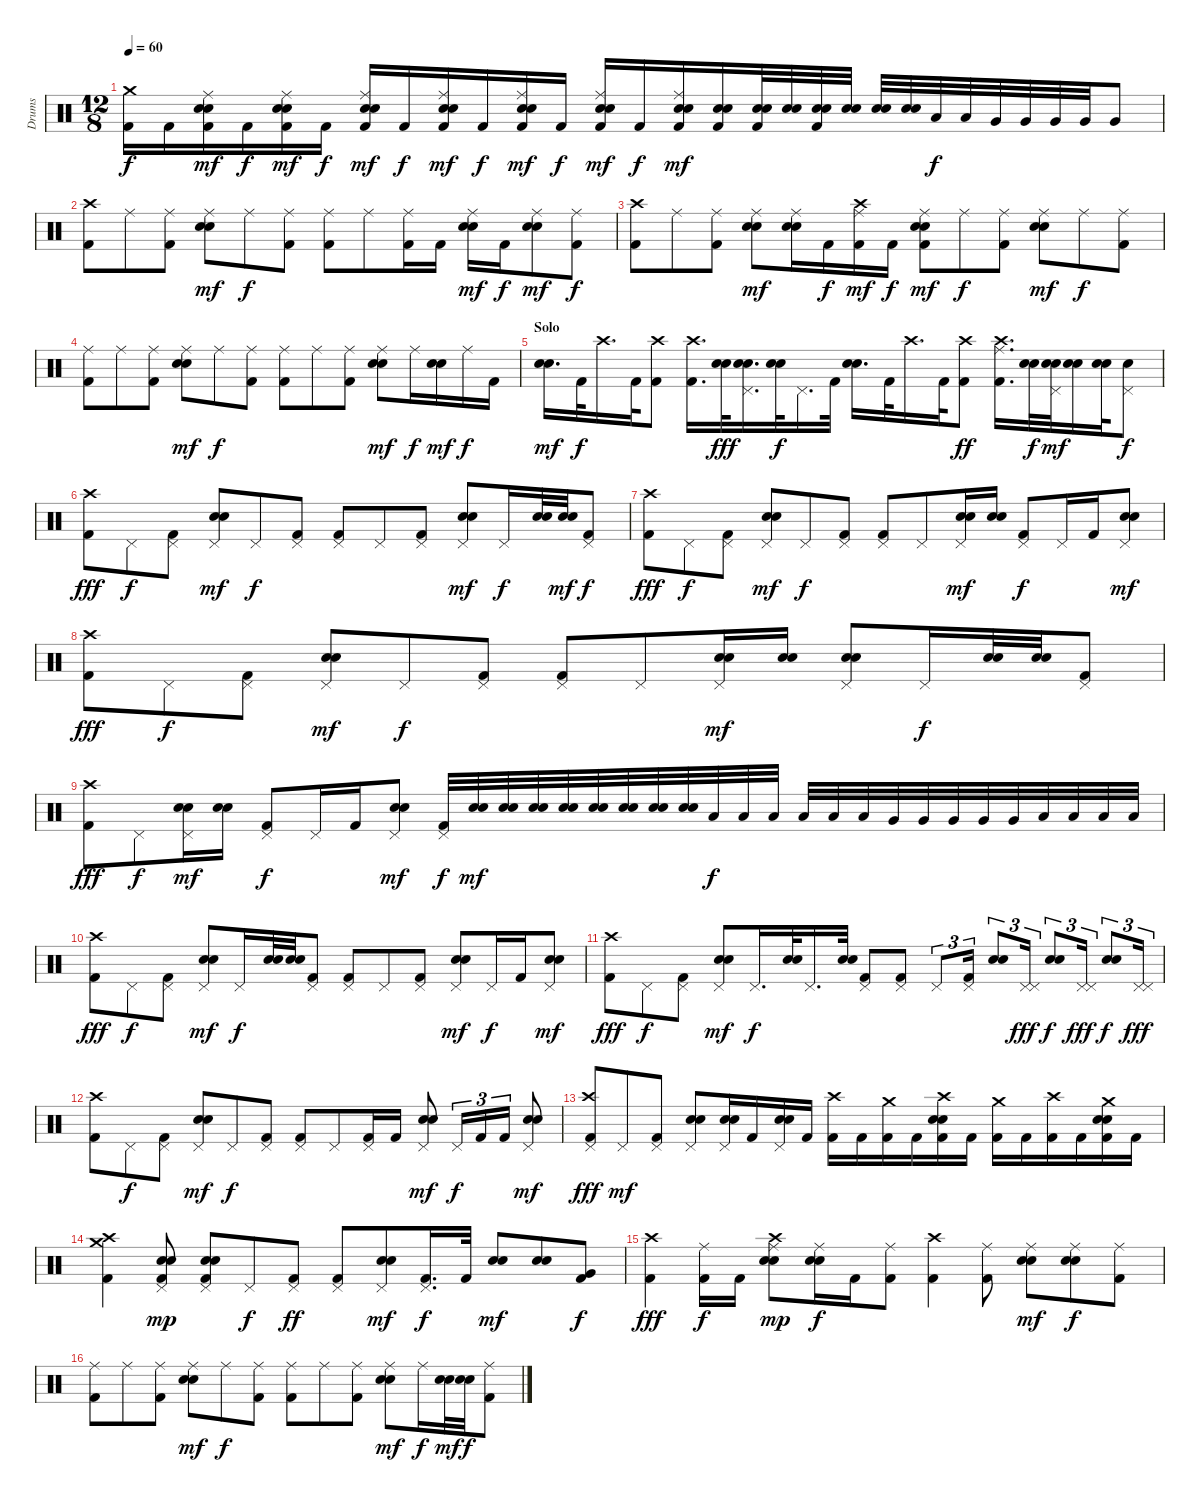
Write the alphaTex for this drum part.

\track ("Drums" "Drums") {instrument percussion}
\staff {score}
\articulation defaults
\ts (12 8)
\tempo 60
\clef neutral
\ks c
("Crash medium (hit)" "Kick (hit) 2").16{dy f} "Kick (hit) 2".16 ("Ride (middle)" "Snare (hit) 2" "Kick (hit) 2" "Electric Snare (hit)").16{dy mf} "Kick (hit) 2".16{dy f} ("Ride (middle)" "Snare (hit) 2" "Kick (hit) 2" "Electric Snare (hit)").16{dy mf} "Kick (hit) 2".16{dy f} ("Ride (middle)" "Snare (hit) 2" "Kick (hit) 2" "Electric Snare (hit)").16{dy mf} "Kick (hit) 2".16{dy f} ("Ride (middle)" "Snare (hit) 2" "Kick (hit) 2" "Electric Snare (hit)").16{dy mf} "Kick (hit) 2".16{dy f} ("Ride (middle)" "Snare (hit) 2" "Kick (hit) 2" "Electric Snare (hit)").16{dy mf} "Kick (hit) 2".16{dy f} ("Ride (middle)" "Snare (hit) 2" "Kick (hit) 2" "Electric Snare (hit)").16{dy mf} "Kick (hit) 2".16{dy f} ("Ride (middle)" "Snare (hit) 2" "Kick (hit) 2" "Electric Snare (hit)").16{dy mf} ("Snare (hit) 2" "Kick (hit) 2" "Electric Snare (hit)").16 ("Snare (hit) 2" "Kick (hit) 2" "Electric Snare (hit)").32 ("Snare (hit) 2" "Electric Snare (hit)").32 ("Snare (hit) 2" "Kick (hit) 2" "Electric Snare (hit)").32 ("Snare (hit) 2" "Electric Snare (hit)").32 ("Snare (hit) 2" "Electric Snare (hit)").32 ("Snare (hit) 2" "Electric Snare (hit)").32 "Low Tom (hit)".32{dy f} "Low Tom (hit)".32 "Very Low Tom (hit)".32 "Very Low Tom (hit)".32 "Very Low Tom (hit)".32 "Very Low Tom (hit)".32 "Very Low Tom (hit)".8 |
("Crash high (hit)" "Kick (hit) 2").8 "Ride (middle)".8 ("Ride (middle)" "Kick (hit) 2").8 ("Ride (middle)" "Snare (hit) 2" "Electric Snare (hit)").8{dy mf} "Ride (middle)".8{dy f} ("Ride (middle)" "Kick (hit) 2").8 ("Ride (middle)" "Kick (hit) 2").8 "Ride (middle)".8 ("Ride (middle)" "Kick (hit) 2").16 "Kick (hit) 2".16 ("Ride (middle)" "Electric Snare (hit)" "Snare (hit) 2").16{dy mf} "Kick (hit) 2".16{dy f} ("Ride (middle)" "Snare (hit) 2" "Electric Snare (hit)").8{dy mf} ("Ride (middle)" "Kick (hit) 2").8{dy f} |
("Crash high (hit)" "Kick (hit) 2").8 "Ride (middle)".8 ("Ride (middle)" "Kick (hit) 2").8 ("Ride (middle)" "Electric Snare (hit)" "Snare (hit) 2").8{dy mf} ("Ride (middle)" "Electric Snare (hit)" "Snare (hit) 2").16 "Kick (hit) 2".16{dy f} ("Ride (middle)" "Crash high (hit)" "Kick (hit) 2").16{dy mf} "Kick (hit) 2".16{dy f} ("Ride (middle)" "Snare (hit) 2" "Kick (hit) 2" "Electric Snare (hit)").8{dy mf} "Ride (middle)".8{dy f} ("Ride (middle)" "Kick (hit) 2").8 ("Ride (middle)" "Electric Snare (hit)" "Snare (hit) 2").8{dy mf} "Ride (middle)".8{dy f} ("Ride (middle)" "Kick (hit) 2").8 |
("Ride (middle)" "Kick (hit) 2").8 "Ride (middle)".8 ("Ride (middle)" "Kick (hit) 2").8 ("Ride (middle)" "Electric Snare (hit)" "Snare (hit) 2").8{dy mf} "Ride (middle)".8{dy f} ("Ride (middle)" "Kick (hit) 2").8 ("Ride (middle)" "Kick (hit) 2").8 "Ride (middle)".8 ("Ride (middle)" "Kick (hit) 2").8 ("Ride (middle)" "Electric Snare (hit)" "Snare (hit) 2").8{dy mf} "Ride (middle)".16{dy f} ("Electric Snare (hit)" "Snare (hit) 2").16{dy mf} "Ride (middle)".16{dy f} "Kick (hit) 2".16 |
\section ("" "Solo")
("Electric Snare (hit)" "Snare (hit) 2").16{d dy mf} "Kick (hit) 2".32{dy f} "Crash high (hit)".16{d} "Kick (hit) 2".32 ("Crash high (hit)" "Kick (hit) 2").8 ("Crash high (hit)" "Kick (hit) 2").16{d} ("Electric Snare (hit)" "Snare (hit) 2").32{dy fff} ("Pedal Hi-Hat (hit)" "Electric Snare (hit)" "Snare (hit) 2").16{d} ("Electric Snare (hit)" "Snare (hit) 2").32{dy f} "Pedal Hi-Hat (hit)".16{d} "Kick (hit) 2".32 ("Electric Snare (hit)" "Snare (hit) 2").16{d} "Kick (hit) 2".32 "Crash high (hit)".16{d} "Kick (hit) 2".32 ("Kick (hit) 2" "Crash high (hit)").8{dy ff} ("Ride (middle)" "Kick (hit) 2" "Crash high (hit)").16{d} ("Electric Snare (hit)" "Snare (hit) 2").32{dy f} ("Pedal Hi-Hat (hit)" "Electric Snare (hit)" "Snare (hit) 2").32{dy mf} ("Electric Snare (hit)" "Snare (hit) 2").16 ("Electric Snare (hit)" "Snare (hit) 2").32 ("Pedal Hi-Hat (hit)" "Electric Snare (hit)").8{dy f} |
("Crash high (hit)" "Kick (hit) 2").8{dy fff} "Pedal Hi-Hat (hit)".8{dy f} ("Pedal Hi-Hat (hit)" "Kick (hit) 2").8 ("Pedal Hi-Hat (hit)" "Electric Snare (hit)" "Snare (hit) 2").8{dy mf} "Pedal Hi-Hat (hit)".8{dy f} ("Pedal Hi-Hat (hit)" "Kick (hit) 2").8 ("Pedal Hi-Hat (hit)" "Kick (hit) 2").8 "Pedal Hi-Hat (hit)".8 ("Pedal Hi-Hat (hit)" "Kick (hit) 2").8 ("Pedal Hi-Hat (hit)" "Electric Snare (hit)" "Snare (hit) 2").8{dy mf} "Pedal Hi-Hat (hit)".16{dy f} ("Electric Snare (hit)" "Snare (hit) 2").32 ("Electric Snare (hit)" "Snare (hit) 2").32{dy mf} ("Pedal Hi-Hat (hit)" "Kick (hit) 2").8{dy f} |
("Crash high (hit)" "Kick (hit) 2").8{dy fff} "Pedal Hi-Hat (hit)".8{dy f} ("Pedal Hi-Hat (hit)" "Kick (hit) 2").8 ("Pedal Hi-Hat (hit)" "Electric Snare (hit)" "Snare (hit) 2").8{dy mf} "Pedal Hi-Hat (hit)".8{dy f} ("Pedal Hi-Hat (hit)" "Kick (hit) 2").8 ("Pedal Hi-Hat (hit)" "Kick (hit) 2").8 "Pedal Hi-Hat (hit)".8 ("Pedal Hi-Hat (hit)" "Electric Snare (hit)" "Snare (hit) 2").16{dy mf} ("Electric Snare (hit)" "Snare (hit) 2").16 ("Pedal Hi-Hat (hit)" "Kick (hit) 2").8{dy f} "Pedal Hi-Hat (hit)".16 "Kick (hit) 2".16 ("Pedal Hi-Hat (hit)" "Electric Snare (hit)" "Snare (hit) 2").8{dy mf} |
("Crash high (hit)" "Kick (hit) 2").8{dy fff} "Pedal Hi-Hat (hit)".8{dy f} ("Pedal Hi-Hat (hit)" "Kick (hit) 2").8 ("Pedal Hi-Hat (hit)" "Electric Snare (hit)" "Snare (hit) 2").8{dy mf} "Pedal Hi-Hat (hit)".8{dy f} ("Pedal Hi-Hat (hit)" "Kick (hit) 2").8 ("Pedal Hi-Hat (hit)" "Kick (hit) 2").8 "Pedal Hi-Hat (hit)".8 ("Pedal Hi-Hat (hit)" "Electric Snare (hit)" "Snare (hit) 2").16{dy mf} ("Electric Snare (hit)" "Snare (hit) 2").16 ("Pedal Hi-Hat (hit)" "Electric Snare (hit)" "Snare (hit) 2").8 "Pedal Hi-Hat (hit)".16{dy f} ("Electric Snare (hit)" "Snare (hit) 2").32 ("Electric Snare (hit)" "Snare (hit) 2").32 ("Pedal Hi-Hat (hit)" "Kick (hit) 2").8 |
("Crash high (hit)" "Kick (hit) 2").8{dy fff} "Pedal Hi-Hat (hit)".8{dy f} ("Pedal Hi-Hat (hit)" "Electric Snare (hit)" "Snare (hit) 2").16{dy mf} ("Electric Snare (hit)" "Snare (hit) 2").16 ("Pedal Hi-Hat (hit)" "Kick (hit) 2").8{dy f} "Pedal Hi-Hat (hit)".16 "Kick (hit) 2".16 ("Pedal Hi-Hat (hit)" "Electric Snare (hit)" "Snare (hit) 2").8{dy mf} ("Pedal Hi-Hat (hit)" "Kick (hit) 2").32{dy f} ("Electric Snare (hit)" "Snare (hit) 2").32{dy mf} ("Electric Snare (hit)" "Snare (hit) 2").32 ("Electric Snare (hit)" "Snare (hit) 2").32 ("Electric Snare (hit)" "Snare (hit) 2").32 ("Electric Snare (hit)" "Snare (hit) 2").32 ("Electric Snare (hit)" "Snare (hit) 2").32 ("Electric Snare (hit)" "Snare (hit) 2").32 ("Electric Snare (hit)" "Snare (hit) 2").32 "Low Tom (hit)".32{dy f} "Low Tom (hit)".32 "Low Tom (hit)".32 "Low Tom (hit)".32 "Low Tom (hit)".32 "Low Tom (hit)".32 "Very Low Tom (hit)".32 "Very Low Tom (hit)".32 "Very Low Tom (hit)".32 "Very Low Tom (hit)".32 "Very Low Tom (hit)".32 "Low Floor Tom (hit)".32 "Low Floor Tom (hit)".32 "Low Floor Tom (hit)".32 "Low Floor Tom (hit)".32 |
("Crash high (hit)" "Kick (hit) 2").8{dy fff} "Pedal Hi-Hat (hit)".8{dy f} ("Pedal Hi-Hat (hit)" "Kick (hit) 2").8 ("Pedal Hi-Hat (hit)" "Electric Snare (hit)" "Snare (hit) 2").8{dy mf} "Pedal Hi-Hat (hit)".16{dy f} ("Electric Snare (hit)" "Snare (hit) 2").32 ("Electric Snare (hit)" "Snare (hit) 2").32 ("Pedal Hi-Hat (hit)" "Kick (hit) 2").8 ("Pedal Hi-Hat (hit)" "Kick (hit) 2").8 "Pedal Hi-Hat (hit)".8 ("Pedal Hi-Hat (hit)" "Kick (hit) 2").8 ("Pedal Hi-Hat (hit)" "Electric Snare (hit)" "Snare (hit) 2").8{dy mf} "Pedal Hi-Hat (hit)".16{dy f} "Kick (hit) 2".16 ("Pedal Hi-Hat (hit)" "Electric Snare (hit)" "Snare (hit) 2").8{dy mf} |
("Crash high (hit)" "Kick (hit) 2").8{dy fff} "Pedal Hi-Hat (hit)".8{dy f} ("Pedal Hi-Hat (hit)" "Kick (hit) 2").8 ("Pedal Hi-Hat (hit)" "Electric Snare (hit)" "Snare (hit) 2").8{dy mf} "Pedal Hi-Hat (hit)".16{d dy f} ("Electric Snare (hit)" "Snare (hit) 2").32 "Pedal Hi-Hat (hit)".16{d} ("Electric Snare (hit)" "Snare (hit) 2").32 ("Pedal Hi-Hat (hit)" "Kick (hit) 2").8 ("Pedal Hi-Hat (hit)" "Kick (hit) 2").8 "Pedal Hi-Hat (hit)".8{tu (3 2)} ("Pedal Hi-Hat (hit)" "Kick (hit) 2").16{tu (3 2)} ("Electric Snare (hit)" "Snare (hit) 2").8{tu (3 2)} ("Pedal Hi-Hat (hit)" "Pedal Hi-Hat (hit)").16{tu (3 2) dy fff} ("Electric Snare (hit)" "Snare (hit) 2").8{tu (3 2) dy f} ("Pedal Hi-Hat (hit)" "Pedal Hi-Hat (hit)").16{tu (3 2) dy fff} ("Electric Snare (hit)" "Snare (hit) 2").8{tu (3 2) dy f} ("Pedal Hi-Hat (hit)" "Pedal Hi-Hat (hit)").16{tu (3 2) dy fff} |
("Crash high (hit)" "Kick (hit) 2").8 "Pedal Hi-Hat (hit)".8{dy f} ("Pedal Hi-Hat (hit)" "Kick (hit) 2").8 ("Pedal Hi-Hat (hit)" "Electric Snare (hit)" "Snare (hit) 2").8{dy mf} "Pedal Hi-Hat (hit)".8{dy f} ("Pedal Hi-Hat (hit)" "Kick (hit) 2").8 ("Pedal Hi-Hat (hit)" "Kick (hit) 2").8 "Pedal Hi-Hat (hit)".8 ("Pedal Hi-Hat (hit)" "Kick (hit) 2").16 "Kick (hit) 2".16 ("Pedal Hi-Hat (hit)" "Electric Snare (hit)" "Snare (hit) 2").8{dy mf} "Pedal Hi-Hat (hit)".16{tu (3 2) dy f} "Kick (hit) 2".16{tu (3 2)} "Kick (hit) 2".16{tu (3 2)} ("Pedal Hi-Hat (hit)" "Electric Snare (hit)" "Snare (hit) 2").8{dy mf} |
("Kick (hit) 2" "Pedal Hi-Hat (hit)" "Crash high (hit)").8{dy fff} "Pedal Hi-Hat (hit)".8{dy mf} ("Kick (hit) 2" "Pedal Hi-Hat (hit)").8 ("Electric Snare (hit)" "Pedal Hi-Hat (hit)" "Snare (hit) 2").8 ("Electric Snare (hit)" "Pedal Hi-Hat (hit)" "Snare (hit) 2").16 "Kick (hit) 2".16 ("Electric Snare (hit)" "Pedal Hi-Hat (hit)" "Snare (hit) 2").16 "Kick (hit) 2".16 ("Kick (hit) 2" "Crash high (hit)").16 "Kick (hit) 2".16 ("Kick (hit) 2" "Crash medium (hit)").16 "Kick (hit) 2".16 ("Electric Snare (hit)" "Kick (hit) 2" "Crash high (hit)" "Snare (hit) 2").16 "Kick (hit) 2".16 ("Crash medium (hit)" "Kick (hit) 2").16 "Kick (hit) 2".16 ("Kick (hit) 2" "Crash high (hit)").16 "Kick (hit) 2".16 ("Electric Snare (hit)" "Kick (hit) 2" "Crash medium (hit)" "Snare (hit) 2").16 "Kick (hit) 2".16 |
("Crash high (hit)" "Crash medium (hit)" "Kick (hit) 2").4 ("Pedal Hi-Hat (hit)" "Electric Snare (hit)" "Kick (hit) 2" "Snare (hit) 2").8{dy mp} ("Pedal Hi-Hat (hit)" "Electric Snare (hit)" "Snare (hit) 2" "Kick (hit) 2").8 "Pedal Hi-Hat (hit)".8{dy f} ("Pedal Hi-Hat (hit)" "Kick (hit) 2").8{dy ff} ("Pedal Hi-Hat (hit)" "Kick (hit) 2").8 ("Pedal Hi-Hat (hit)" "Electric Snare (hit)" "Snare (hit) 2").8{dy mf} ("Pedal Hi-Hat (hit)" "Kick (hit) 2").16{d dy f} "Kick (hit) 2".32 ("Electric Snare (hit)" "Snare (hit) 2").8{dy mf} ("Electric Snare (hit)" "Snare (hit) 2").8 ("Kick (hit) 2" "Very Low Tom (hit)").8{dy f} |
("Crash high (hit)" "Kick (hit) 2").4{dy fff} ("Ride (middle)" "Kick (hit) 2").16{dy f} "Kick (hit) 2".16 ("Ride (middle)" "Electric Snare (hit)" "Snare (hit) 2" "Crash high (hit)").8{dy mp} ("Ride (middle)" "Electric Snare (hit)" "Snare (hit) 2").16{dy f} "Kick (hit) 2".16 ("Ride (middle)" "Kick (hit) 2").8 ("Crash high (hit)" "Kick (hit) 2").4 ("Ride (middle)" "Kick (hit) 2").8 ("Ride (middle)" "Electric Snare (hit)" "Snare (hit) 2").8{dy mf} ("Ride (middle)" "Electric Snare (hit)" "Snare (hit) 2").8{dy f} ("Ride (middle)" "Kick (hit) 2").8 |
("Ride (middle)" "Kick (hit) 2").8 "Ride (middle)".8 ("Ride (middle)" "Kick (hit) 2").8 ("Ride (middle)" "Electric Snare (hit)" "Snare (hit) 2").8{dy mf} "Ride (middle)".8{dy f} ("Ride (middle)" "Kick (hit) 2").8 ("Ride (middle)" "Kick (hit) 2").8 "Ride (middle)".8 ("Ride (middle)" "Kick (hit) 2").8 ("Ride (middle)" "Electric Snare (hit)" "Snare (hit) 2").8{dy mf} "Ride (middle)".16{dy f} ("Electric Snare (hit)" "Snare (hit) 2").32{dy mf} ("Electric Snare (hit)" "Snare (hit) 2").32{dy f} ("Ride (middle)" "Kick (hit) 2").8
